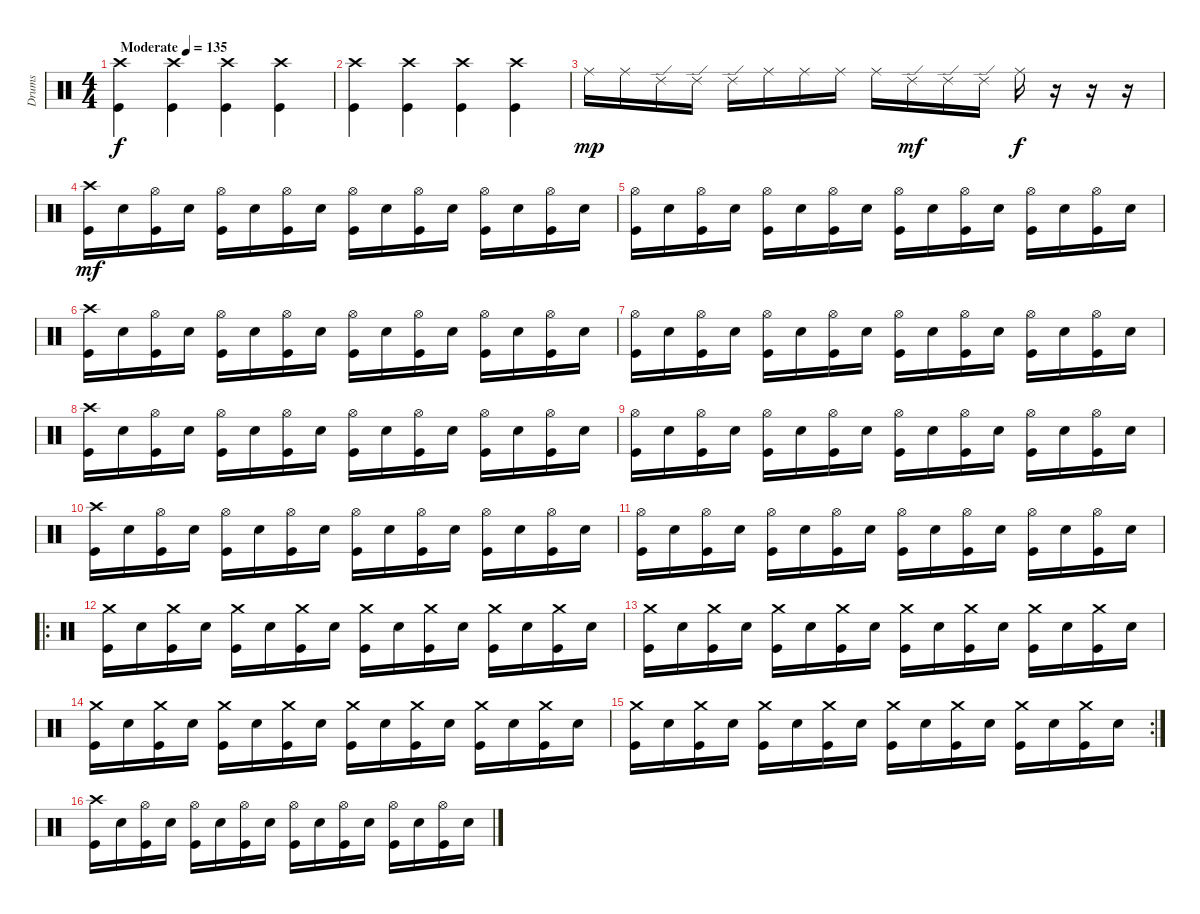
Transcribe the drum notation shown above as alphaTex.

\track ("Drums" "Drums") {instrument percussion}
\staff {score}
\articulation defaults
\ts (4 4)
\tempo (135 "Moderate")
\clef neutral
\ks c
("Crash high (hit)" "Kick (hit)").4{dy f} ("Crash high (hit)" "Kick (hit)").4 ("Crash high (hit)" "Kick (hit)").4 ("Crash high (hit)" "Kick (hit)").4 |
("Crash high (hit)" "Kick (hit)").4 ("Crash high (hit)" "Kick (hit)").4 ("Crash high (hit)" "Kick (hit)").4 ("Crash high (hit)" "Kick (hit)").4 |
"Ride (middle)".16{dy mp} "Ride (middle)".16 "Ride (edge) 2".16 "Ride (edge) 2".16 "Ride (edge) 2".16 "Ride (middle)".16 "Ride (middle)".16 "Ride (middle)".16 "Ride (middle)".16 "Ride (edge) 2".16{dy mf} "Ride (edge) 2".16 "Ride (edge) 2".16 "Ride (middle)".16{dy f} r.16 r.16 r.16 |
("Crash high (hit)" "Kick (hit)").16{dy mf} "Snare (hit) 2".16 ("Hi-Hat (open)" "Kick (hit)").16 "Snare (hit) 2".16 ("Hi-Hat (open)" "Kick (hit)").16 "Snare (hit) 2".16 ("Hi-Hat (open)" "Kick (hit)").16 "Snare (hit) 2".16 ("Hi-Hat (open)" "Kick (hit)").16 "Snare (hit) 2".16 ("Hi-Hat (open)" "Kick (hit)").16 "Snare (hit) 2".16 ("Hi-Hat (open)" "Kick (hit)").16 "Snare (hit) 2".16 ("Hi-Hat (open)" "Kick (hit)").16 "Snare (hit) 2".16 |
("Hi-Hat (open)" "Kick (hit)").16 "Snare (hit) 2".16 ("Hi-Hat (open)" "Kick (hit)").16 "Snare (hit) 2".16 ("Hi-Hat (open)" "Kick (hit)").16 "Snare (hit) 2".16 ("Hi-Hat (open)" "Kick (hit)").16 "Snare (hit) 2".16 ("Hi-Hat (open)" "Kick (hit)").16 "Snare (hit) 2".16 ("Hi-Hat (open)" "Kick (hit)").16 "Snare (hit) 2".16 ("Hi-Hat (open)" "Kick (hit)").16 "Snare (hit) 2".16 ("Hi-Hat (open)" "Kick (hit)").16 "Snare (hit) 2".16 |
("Crash high (hit)" "Kick (hit)").16 "Snare (hit) 2".16 ("Hi-Hat (open)" "Kick (hit)").16 "Snare (hit) 2".16 ("Hi-Hat (open)" "Kick (hit)").16 "Snare (hit) 2".16 ("Hi-Hat (open)" "Kick (hit)").16 "Snare (hit) 2".16 ("Hi-Hat (open)" "Kick (hit)").16 "Snare (hit) 2".16 ("Hi-Hat (open)" "Kick (hit)").16 "Snare (hit) 2".16 ("Hi-Hat (open)" "Kick (hit)").16 "Snare (hit) 2".16 ("Hi-Hat (open)" "Kick (hit)").16 "Snare (hit) 2".16 |
("Hi-Hat (open)" "Kick (hit)").16 "Snare (hit) 2".16 ("Hi-Hat (open)" "Kick (hit)").16 "Snare (hit) 2".16 ("Hi-Hat (open)" "Kick (hit)").16 "Snare (hit) 2".16 ("Hi-Hat (open)" "Kick (hit)").16 "Snare (hit) 2".16 ("Hi-Hat (open)" "Kick (hit)").16 "Snare (hit) 2".16 ("Hi-Hat (open)" "Kick (hit)").16 "Snare (hit) 2".16 ("Hi-Hat (open)" "Kick (hit)").16 "Snare (hit) 2".16 ("Hi-Hat (open)" "Kick (hit)").16 "Snare (hit) 2".16 |
("Crash high (hit)" "Kick (hit)").16 "Snare (hit) 2".16 ("Hi-Hat (open)" "Kick (hit)").16 "Snare (hit) 2".16 ("Hi-Hat (open)" "Kick (hit)").16 "Snare (hit) 2".16 ("Hi-Hat (open)" "Kick (hit)").16 "Snare (hit) 2".16 ("Hi-Hat (open)" "Kick (hit)").16 "Snare (hit) 2".16 ("Hi-Hat (open)" "Kick (hit)").16 "Snare (hit) 2".16 ("Hi-Hat (open)" "Kick (hit)").16 "Snare (hit) 2".16 ("Hi-Hat (open)" "Kick (hit)").16 "Snare (hit) 2".16 |
("Hi-Hat (open)" "Kick (hit)").16 "Snare (hit) 2".16 ("Hi-Hat (open)" "Kick (hit)").16 "Snare (hit) 2".16 ("Hi-Hat (open)" "Kick (hit)").16 "Snare (hit) 2".16 ("Hi-Hat (open)" "Kick (hit)").16 "Snare (hit) 2".16 ("Hi-Hat (open)" "Kick (hit)").16 "Snare (hit) 2".16 ("Hi-Hat (open)" "Kick (hit)").16 "Snare (hit) 2".16 ("Hi-Hat (open)" "Kick (hit)").16 "Snare (hit) 2".16 ("Hi-Hat (open)" "Kick (hit)").16 "Snare (hit) 2".16 |
("Crash high (hit)" "Kick (hit)").16 "Snare (hit) 2".16 ("Hi-Hat (open)" "Kick (hit)").16 "Snare (hit) 2".16 ("Hi-Hat (open)" "Kick (hit)").16 "Snare (hit) 2".16 ("Hi-Hat (open)" "Kick (hit)").16 "Snare (hit) 2".16 ("Hi-Hat (open)" "Kick (hit)").16 "Snare (hit) 2".16 ("Hi-Hat (open)" "Kick (hit)").16 "Snare (hit) 2".16 ("Hi-Hat (open)" "Kick (hit)").16 "Snare (hit) 2".16 ("Hi-Hat (open)" "Kick (hit)").16 "Snare (hit) 2".16 |
("Hi-Hat (open)" "Kick (hit)").16 "Snare (hit) 2".16 ("Hi-Hat (open)" "Kick (hit)").16 "Snare (hit) 2".16 ("Hi-Hat (open)" "Kick (hit)").16 "Snare (hit) 2".16 ("Hi-Hat (open)" "Kick (hit)").16 "Snare (hit) 2".16 ("Hi-Hat (open)" "Kick (hit)").16 "Snare (hit) 2".16 ("Hi-Hat (open)" "Kick (hit)").16 "Snare (hit) 2".16 ("Hi-Hat (open)" "Kick (hit)").16 "Snare (hit) 2".16 ("Hi-Hat (open)" "Kick (hit)").16 "Snare (hit) 2".16 |
\ro
("Crash medium (hit)" "Kick (hit)").16 "Snare (hit) 2".16 ("Crash medium (hit)" "Kick (hit)").16 "Snare (hit) 2".16 ("Crash medium (hit)" "Kick (hit)").16 "Snare (hit) 2".16 ("Crash medium (hit)" "Kick (hit)").16 "Snare (hit) 2".16 ("Crash medium (hit)" "Kick (hit)").16 "Snare (hit) 2".16 ("Crash medium (hit)" "Kick (hit)").16 "Snare (hit) 2".16 ("Crash medium (hit)" "Kick (hit)").16 "Snare (hit) 2".16 ("Crash medium (hit)" "Kick (hit)").16 "Snare (hit) 2".16 |
("Crash medium (hit)" "Kick (hit)").16 "Snare (hit) 2".16 ("Crash medium (hit)" "Kick (hit)").16 "Snare (hit) 2".16 ("Crash medium (hit)" "Kick (hit)").16 "Snare (hit) 2".16 ("Crash medium (hit)" "Kick (hit)").16 "Snare (hit) 2".16 ("Crash medium (hit)" "Kick (hit)").16 "Snare (hit) 2".16 ("Crash medium (hit)" "Kick (hit)").16 "Snare (hit) 2".16 ("Crash medium (hit)" "Kick (hit)").16 "Snare (hit) 2".16 ("Crash medium (hit)" "Kick (hit)").16 "Snare (hit) 2".16 |
("Crash medium (hit)" "Kick (hit)").16 "Snare (hit) 2".16 ("Crash medium (hit)" "Kick (hit)").16 "Snare (hit) 2".16 ("Crash medium (hit)" "Kick (hit)").16 "Snare (hit) 2".16 ("Crash medium (hit)" "Kick (hit)").16 "Snare (hit) 2".16 ("Crash medium (hit)" "Kick (hit)").16 "Snare (hit) 2".16 ("Crash medium (hit)" "Kick (hit)").16 "Snare (hit) 2".16 ("Crash medium (hit)" "Kick (hit)").16 "Snare (hit) 2".16 ("Crash medium (hit)" "Kick (hit)").16 "Snare (hit) 2".16 |
\rc 2
("Crash medium (hit)" "Kick (hit)").16 "Snare (hit) 2".16 ("Crash medium (hit)" "Kick (hit)").16 "Snare (hit) 2".16 ("Crash medium (hit)" "Kick (hit)").16 "Snare (hit) 2".16 ("Crash medium (hit)" "Kick (hit)").16 "Snare (hit) 2".16 ("Crash medium (hit)" "Kick (hit)").16 "Snare (hit) 2".16 ("Crash medium (hit)" "Kick (hit)").16 "Snare (hit) 2".16 ("Crash medium (hit)" "Kick (hit)").16 "Snare (hit) 2".16 ("Crash medium (hit)" "Kick (hit)").16 "Snare (hit) 2".16 |
("Crash high (hit)" "Kick (hit)").16 "Snare (hit) 2".16 ("Hi-Hat (open)" "Kick (hit)").16 "Snare (hit) 2".16 ("Hi-Hat (open)" "Kick (hit)").16 "Snare (hit) 2".16 ("Hi-Hat (open)" "Kick (hit)").16 "Snare (hit) 2".16 ("Hi-Hat (open)" "Kick (hit)").16 "Snare (hit) 2".16 ("Hi-Hat (open)" "Kick (hit)").16 "Snare (hit) 2".16 ("Hi-Hat (open)" "Kick (hit)").16 "Snare (hit) 2".16 ("Hi-Hat (open)" "Kick (hit)").16 "Snare (hit) 2".16
